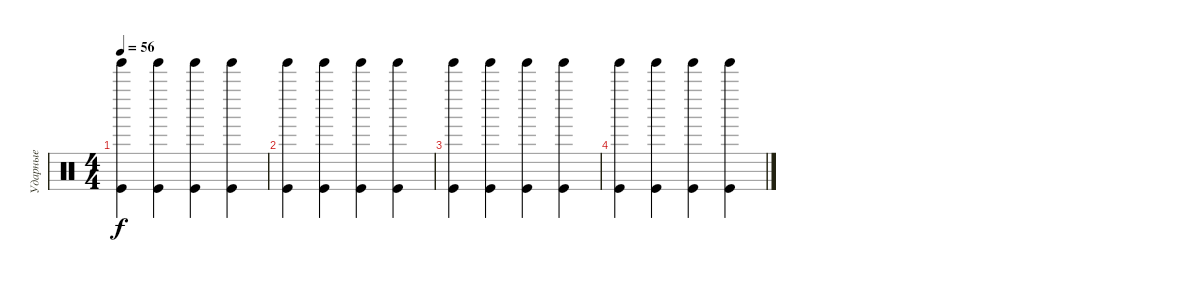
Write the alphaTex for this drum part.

\track ("Ударные" "Ударные") {instrument percussion}
\staff {score}
\articulation defaults
\ts (4 4)
\tempo 56
\clef neutral
\ks c
("Tinkle Bell (hit)" "Kick (hit)").4{dy f} ("Tinkle Bell (hit)" "Kick (hit)").4 ("Tinkle Bell (hit)" "Kick (hit)").4 ("Tinkle Bell (hit)" "Kick (hit)").4 |
("Tinkle Bell (hit)" "Kick (hit)").4{volume 7} ("Tinkle Bell (hit)" "Kick (hit)").4 ("Tinkle Bell (hit)" "Kick (hit)").4{volume 6} ("Tinkle Bell (hit)" "Kick (hit)").4 |
("Tinkle Bell (hit)" "Kick (hit)").4{volume 5} ("Tinkle Bell (hit)" "Kick (hit)").4 ("Tinkle Bell (hit)" "Kick (hit)").4{volume 4} ("Tinkle Bell (hit)" "Kick (hit)").4 |
("Tinkle Bell (hit)" "Kick (hit)").4{volume 2} ("Tinkle Bell (hit)" "Kick (hit)").4 ("Tinkle Bell (hit)" "Kick (hit)").4{volume 0} ("Tinkle Bell (hit)" "Kick (hit)").4
